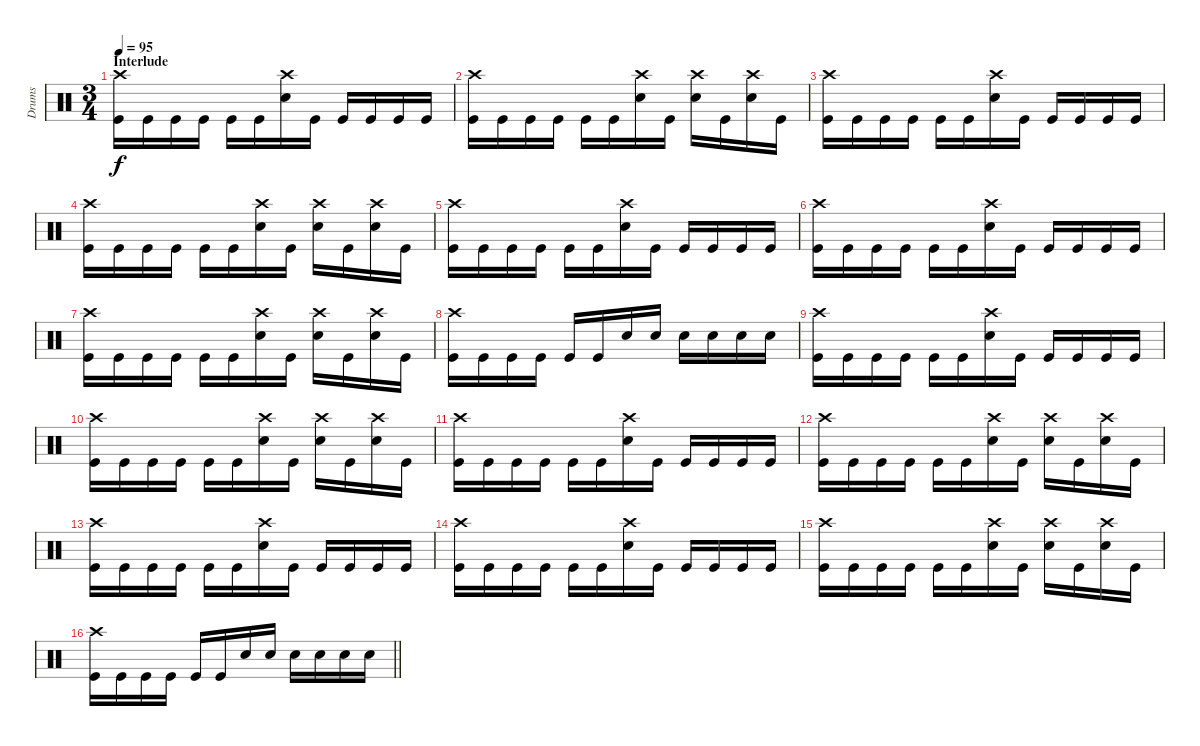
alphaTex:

\track ("Drums" "Drums") {instrument percussion}
\staff {score}
\articulation defaults
\ts (3 4)
\section ("" "Interlude")
\tempo 95
\clef neutral
\ks c
("Crash high (hit)" "Kick (hit)").16{dy f} "Kick (hit)".16 "Kick (hit)".16 "Kick (hit)".16 "Kick (hit)".16 "Kick (hit)".16 ("Crash high (hit)" "Electric Snare (hit)").16 "Kick (hit)".16 "Kick (hit)".16 "Kick (hit)".16 "Kick (hit)".16 "Kick (hit)".16 |
("Crash high (hit)" "Kick (hit)").16 "Kick (hit)".16 "Kick (hit)".16 "Kick (hit)".16 "Kick (hit)".16 "Kick (hit)".16 ("Crash high (hit)" "Electric Snare (hit)").16 "Kick (hit)".16 ("Crash high (hit)" "Electric Snare (hit)").16 "Kick (hit)".16 ("Crash high (hit)" "Electric Snare (hit)").16 "Kick (hit)".16 |
("Crash high (hit)" "Kick (hit)").16 "Kick (hit)".16 "Kick (hit)".16 "Kick (hit)".16 "Kick (hit)".16 "Kick (hit)".16 ("Crash high (hit)" "Electric Snare (hit)").16 "Kick (hit)".16 "Kick (hit)".16 "Kick (hit)".16 "Kick (hit)".16 "Kick (hit)".16 |
("Crash high (hit)" "Kick (hit)").16 "Kick (hit)".16 "Kick (hit)".16 "Kick (hit)".16 "Kick (hit)".16 "Kick (hit)".16 ("Crash high (hit)" "Electric Snare (hit)").16 "Kick (hit)".16 ("Crash high (hit)" "Electric Snare (hit)").16 "Kick (hit)".16 ("Crash high (hit)" "Electric Snare (hit)").16 "Kick (hit)".16 |
("Crash high (hit)" "Kick (hit)").16 "Kick (hit)".16 "Kick (hit)".16 "Kick (hit)".16 "Kick (hit)".16 "Kick (hit)".16 ("Crash high (hit)" "Electric Snare (hit)").16 "Kick (hit)".16 "Kick (hit)".16 "Kick (hit)".16 "Kick (hit)".16 "Kick (hit)".16 |
("Crash high (hit)" "Kick (hit)").16 "Kick (hit)".16 "Kick (hit)".16 "Kick (hit)".16 "Kick (hit)".16 "Kick (hit)".16 ("Crash high (hit)" "Electric Snare (hit)").16 "Kick (hit)".16 "Kick (hit)".16 "Kick (hit)".16 "Kick (hit)".16 "Kick (hit)".16 |
("Crash high (hit)" "Kick (hit)").16 "Kick (hit)".16 "Kick (hit)".16 "Kick (hit)".16 "Kick (hit)".16 "Kick (hit)".16 ("Crash high (hit)" "Electric Snare (hit)").16 "Kick (hit)".16 ("Crash high (hit)" "Electric Snare (hit)").16 "Kick (hit)".16 ("Crash high (hit)" "Electric Snare (hit)").16 "Kick (hit)".16 |
("Crash high (hit)" "Kick (hit)").16 "Kick (hit)".16 "Kick (hit)".16 "Kick (hit)".16 "Kick (hit)".16 "Kick (hit)".16 "Electric Snare (hit)".16 "Electric Snare (hit)".16 "Electric Snare (hit)".16 "Electric Snare (hit)".16 "Electric Snare (hit)".16 "Electric Snare (hit)".16 |
("Crash high (hit)" "Kick (hit)").16 "Kick (hit)".16 "Kick (hit)".16 "Kick (hit)".16 "Kick (hit)".16 "Kick (hit)".16 ("Crash high (hit)" "Electric Snare (hit)").16 "Kick (hit)".16 "Kick (hit)".16 "Kick (hit)".16 "Kick (hit)".16 "Kick (hit)".16 |
("Crash high (hit)" "Kick (hit)").16 "Kick (hit)".16 "Kick (hit)".16 "Kick (hit)".16 "Kick (hit)".16 "Kick (hit)".16 ("Crash high (hit)" "Electric Snare (hit)").16 "Kick (hit)".16 ("Crash high (hit)" "Electric Snare (hit)").16 "Kick (hit)".16 ("Crash high (hit)" "Electric Snare (hit)").16 "Kick (hit)".16 |
("Crash high (hit)" "Kick (hit)").16 "Kick (hit)".16 "Kick (hit)".16 "Kick (hit)".16 "Kick (hit)".16 "Kick (hit)".16 ("Crash high (hit)" "Electric Snare (hit)").16 "Kick (hit)".16 "Kick (hit)".16 "Kick (hit)".16 "Kick (hit)".16 "Kick (hit)".16 |
("Crash high (hit)" "Kick (hit)").16 "Kick (hit)".16 "Kick (hit)".16 "Kick (hit)".16 "Kick (hit)".16 "Kick (hit)".16 ("Crash high (hit)" "Electric Snare (hit)").16 "Kick (hit)".16 ("Crash high (hit)" "Electric Snare (hit)").16 "Kick (hit)".16 ("Crash high (hit)" "Electric Snare (hit)").16 "Kick (hit)".16 |
("Crash high (hit)" "Kick (hit)").16 "Kick (hit)".16 "Kick (hit)".16 "Kick (hit)".16 "Kick (hit)".16 "Kick (hit)".16 ("Crash high (hit)" "Electric Snare (hit)").16 "Kick (hit)".16 "Kick (hit)".16 "Kick (hit)".16 "Kick (hit)".16 "Kick (hit)".16 |
("Crash high (hit)" "Kick (hit)").16 "Kick (hit)".16 "Kick (hit)".16 "Kick (hit)".16 "Kick (hit)".16 "Kick (hit)".16 ("Crash high (hit)" "Electric Snare (hit)").16 "Kick (hit)".16 "Kick (hit)".16 "Kick (hit)".16 "Kick (hit)".16 "Kick (hit)".16 |
("Crash high (hit)" "Kick (hit)").16 "Kick (hit)".16 "Kick (hit)".16 "Kick (hit)".16 "Kick (hit)".16 "Kick (hit)".16 ("Crash high (hit)" "Electric Snare (hit)").16 "Kick (hit)".16 ("Crash high (hit)" "Electric Snare (hit)").16 "Kick (hit)".16 ("Crash high (hit)" "Electric Snare (hit)").16 "Kick (hit)".16 |
\barLineRight lightlight
("Crash high (hit)" "Kick (hit)").16 "Kick (hit)".16 "Kick (hit)".16 "Kick (hit)".16 "Kick (hit)".16 "Kick (hit)".16 "Electric Snare (hit)".16 "Electric Snare (hit)".16 "Electric Snare (hit)".16 "Electric Snare (hit)".16 "Electric Snare (hit)".16 "Electric Snare (hit)".16
